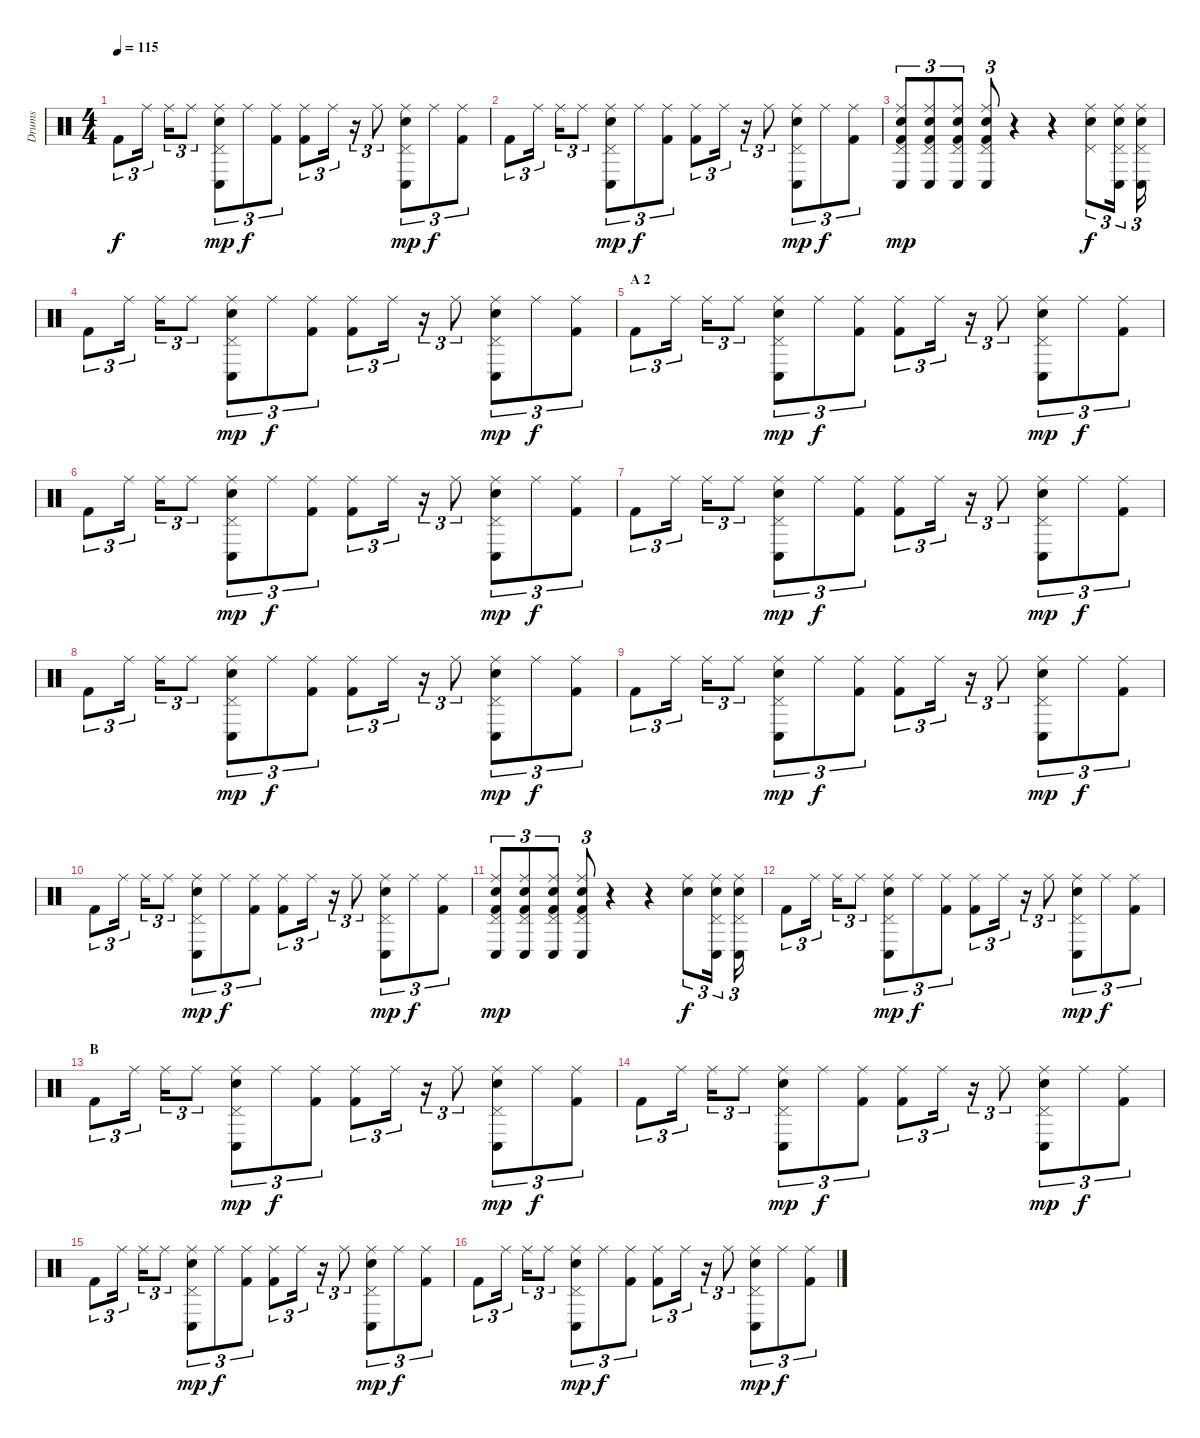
\track ("Drums" "Drums") {instrument percussion}
\staff {score}
\articulation defaults
\ts (4 4)
\tempo 115
\clef neutral
\ks c "Kick (hit) 2".8{tu (3 2) dy f} "Ride (middle)".16{tu (3 2)} "Ride (middle)".16{tu (3 2)} "Ride (middle)".8{tu (3 2)}
("Ride (middle)" "Pedal Hi-Hat (hit)" "Conga low (hit)" "Electric Snare (hit)").8{tu (3 2) dy mp} "Ride (middle)".8{tu (3 2) dy f} ("Ride (middle)" "Kick (hit) 2").8{tu (3 2)} ("Ride (middle)" "Kick (hit) 2").8{tu (3 2)} "Ride (middle)".16{tu (3 2)} r.16{tu (3 2)} "Ride (middle)".8{tu (3 2)} ("Ride (middle)" "Pedal Hi-Hat (hit)" "Conga low (hit)" "Electric Snare (hit)").8{tu (3 2) dy mp} "Ride (middle)".8{tu (3 2) dy f} ("Ride (middle)" "Kick (hit) 2").8{tu (3 2)} |
"Kick (hit) 2".8{tu (3 2)} "Ride (middle)".16{tu (3 2)} "Ride (middle)".16{tu (3 2)} "Ride (middle)".8{tu (3 2)} ("Ride (middle)" "Pedal Hi-Hat (hit)" "Conga low (hit)" "Electric Snare (hit)").8{tu (3 2) dy mp} "Ride (middle)".8{tu (3 2) dy f} ("Ride (middle)" "Kick (hit) 2").8{tu (3 2)} ("Ride (middle)" "Kick (hit) 2").8{tu (3 2)} "Ride (middle)".16{tu (3 2)} r.16{tu (3 2)} "Ride (middle)".8{tu (3 2)} ("Ride (middle)" "Pedal Hi-Hat (hit)" "Conga low (hit)" "Electric Snare (hit)").8{tu (3 2) dy mp} "Ride (middle)".8{tu (3 2) dy f} ("Ride (middle)" "Kick (hit) 2").8{tu (3 2)} |
("Ride (middle)" "Pedal Hi-Hat (hit)" "Conga low (hit)" "Electric Snare (hit)" "Kick (hit) 2").8{tu (3 2) dy mp} ("Ride (middle)" "Pedal Hi-Hat (hit)" "Conga low (hit)" "Electric Snare (hit)" "Kick (hit) 2").8{tu (3 2)} ("Ride (middle)" "Pedal Hi-Hat (hit)" "Conga low (hit)" "Electric Snare (hit)" "Kick (hit) 2").8{tu (3 2)} ("Ride (middle)" "Pedal Hi-Hat (hit)" "Conga low (hit)" "Electric Snare (hit)" "Kick (hit) 2").8{tu (3 2)} r.4 r.4 ("Ride (middle)" "Pedal Hi-Hat (hit)" "Electric Snare (hit)").8{tu (3 2) dy f} ("Ride (middle)" "Pedal Hi-Hat (hit)" "Conga low (hit)" "Electric Snare (hit)").16{tu (3 2)} ("Ride (middle)" "Pedal Hi-Hat (hit)" "Conga low (hit)" "Electric Snare (hit)").16{tu (3 2)} |
"Kick (hit) 2".8{tu (3 2)} "Ride (middle)".16{tu (3 2)} "Ride (middle)".16{tu (3 2)} "Ride (middle)".8{tu (3 2)} ("Ride (middle)" "Pedal Hi-Hat (hit)" "Conga low (hit)" "Electric Snare (hit)").8{tu (3 2) dy mp} "Ride (middle)".8{tu (3 2) dy f} ("Ride (middle)" "Kick (hit) 2").8{tu (3 2)} ("Ride (middle)" "Kick (hit) 2").8{tu (3 2)} "Ride (middle)".16{tu (3 2)} r.16{tu (3 2)} "Ride (middle)".8{tu (3 2)} ("Ride (middle)" "Pedal Hi-Hat (hit)" "Conga low (hit)" "Electric Snare (hit)").8{tu (3 2) dy mp} "Ride (middle)".8{tu (3 2) dy f} ("Ride (middle)" "Kick (hit) 2").8{tu (3 2)} |
\section ("" "A 2")
"Kick (hit) 2".8{tu (3 2)} "Ride (middle)".16{tu (3 2)} "Ride (middle)".16{tu (3 2)} "Ride (middle)".8{tu (3 2)} ("Ride (middle)" "Pedal Hi-Hat (hit)" "Conga low (hit)" "Electric Snare (hit)").8{tu (3 2) dy mp} "Ride (middle)".8{tu (3 2) dy f} ("Ride (middle)" "Kick (hit) 2").8{tu (3 2)} ("Ride (middle)" "Kick (hit) 2").8{tu (3 2)} "Ride (middle)".16{tu (3 2)} r.16{tu (3 2)} "Ride (middle)".8{tu (3 2)} ("Ride (middle)" "Pedal Hi-Hat (hit)" "Conga low (hit)" "Electric Snare (hit)").8{tu (3 2) dy mp} "Ride (middle)".8{tu (3 2) dy f} ("Ride (middle)" "Kick (hit) 2").8{tu (3 2)} |
"Kick (hit) 2".8{tu (3 2)} "Ride (middle)".16{tu (3 2)} "Ride (middle)".16{tu (3 2)} "Ride (middle)".8{tu (3 2)} ("Ride (middle)" "Pedal Hi-Hat (hit)" "Conga low (hit)" "Electric Snare (hit)").8{tu (3 2) dy mp} "Ride (middle)".8{tu (3 2) dy f} ("Ride (middle)" "Kick (hit) 2").8{tu (3 2)} ("Ride (middle)" "Kick (hit) 2").8{tu (3 2)} "Ride (middle)".16{tu (3 2)} r.16{tu (3 2)} "Ride (middle)".8{tu (3 2)} ("Ride (middle)" "Pedal Hi-Hat (hit)" "Conga low (hit)" "Electric Snare (hit)").8{tu (3 2) dy mp} "Ride (middle)".8{tu (3 2) dy f} ("Ride (middle)" "Kick (hit) 2").8{tu (3 2)} |
"Kick (hit) 2".8{tu (3 2)} "Ride (middle)".16{tu (3 2)} "Ride (middle)".16{tu (3 2)} "Ride (middle)".8{tu (3 2)} ("Ride (middle)" "Pedal Hi-Hat (hit)" "Conga low (hit)" "Electric Snare (hit)").8{tu (3 2) dy mp} "Ride (middle)".8{tu (3 2) dy f} ("Ride (middle)" "Kick (hit) 2").8{tu (3 2)} ("Ride (middle)" "Kick (hit) 2").8{tu (3 2)} "Ride (middle)".16{tu (3 2)} r.16{tu (3 2)} "Ride (middle)".8{tu (3 2)} ("Ride (middle)" "Pedal Hi-Hat (hit)" "Conga low (hit)" "Electric Snare (hit)").8{tu (3 2) dy mp} "Ride (middle)".8{tu (3 2) dy f} ("Ride (middle)" "Kick (hit) 2").8{tu (3 2)} |
"Kick (hit) 2".8{tu (3 2)} "Ride (middle)".16{tu (3 2)} "Ride (middle)".16{tu (3 2)} "Ride (middle)".8{tu (3 2)} ("Ride (middle)" "Pedal Hi-Hat (hit)" "Conga low (hit)" "Electric Snare (hit)").8{tu (3 2) dy mp} "Ride (middle)".8{tu (3 2) dy f} ("Ride (middle)" "Kick (hit) 2").8{tu (3 2)} ("Ride (middle)" "Kick (hit) 2").8{tu (3 2)} "Ride (middle)".16{tu (3 2)} r.16{tu (3 2)} "Ride (middle)".8{tu (3 2)} ("Ride (middle)" "Pedal Hi-Hat (hit)" "Conga low (hit)" "Electric Snare (hit)").8{tu (3 2) dy mp} "Ride (middle)".8{tu (3 2) dy f} ("Ride (middle)" "Kick (hit) 2").8{tu (3 2)} |
"Kick (hit) 2".8{tu (3 2)} "Ride (middle)".16{tu (3 2)} "Ride (middle)".16{tu (3 2)} "Ride (middle)".8{tu (3 2)} ("Ride (middle)" "Pedal Hi-Hat (hit)" "Conga low (hit)" "Electric Snare (hit)").8{tu (3 2) dy mp} "Ride (middle)".8{tu (3 2) dy f} ("Ride (middle)" "Kick (hit) 2").8{tu (3 2)} ("Ride (middle)" "Kick (hit) 2").8{tu (3 2)} "Ride (middle)".16{tu (3 2)} r.16{tu (3 2)} "Ride (middle)".8{tu (3 2)} ("Ride (middle)" "Pedal Hi-Hat (hit)" "Conga low (hit)" "Electric Snare (hit)").8{tu (3 2) dy mp} "Ride (middle)".8{tu (3 2) dy f} ("Ride (middle)" "Kick (hit) 2").8{tu (3 2)} |
"Kick (hit) 2".8{tu (3 2)} "Ride (middle)".16{tu (3 2)} "Ride (middle)".16{tu (3 2)} "Ride (middle)".8{tu (3 2)} ("Ride (middle)" "Pedal Hi-Hat (hit)" "Conga low (hit)" "Electric Snare (hit)").8{tu (3 2) dy mp} "Ride (middle)".8{tu (3 2) dy f} ("Ride (middle)" "Kick (hit) 2").8{tu (3 2)} ("Ride (middle)" "Kick (hit) 2").8{tu (3 2)} "Ride (middle)".16{tu (3 2)} r.16{tu (3 2)} "Ride (middle)".8{tu (3 2)} ("Ride (middle)" "Pedal Hi-Hat (hit)" "Conga low (hit)" "Electric Snare (hit)").8{tu (3 2) dy mp} "Ride (middle)".8{tu (3 2) dy f} ("Ride (middle)" "Kick (hit) 2").8{tu (3 2)} |
("Ride (middle)" "Pedal Hi-Hat (hit)" "Conga low (hit)" "Electric Snare (hit)" "Kick (hit) 2").8{tu (3 2) dy mp} ("Ride (middle)" "Pedal Hi-Hat (hit)" "Conga low (hit)" "Electric Snare (hit)" "Kick (hit) 2").8{tu (3 2)} ("Ride (middle)" "Pedal Hi-Hat (hit)" "Conga low (hit)" "Electric Snare (hit)" "Kick (hit) 2").8{tu (3 2)} ("Ride (middle)" "Pedal Hi-Hat (hit)" "Conga low (hit)" "Electric Snare (hit)" "Kick (hit) 2").8{tu (3 2)} r.4 r.4 ("Ride (middle)" "Electric Snare (hit)").8{tu (3 2) dy f} ("Ride (middle)" "Pedal Hi-Hat (hit)" "Conga low (hit)" "Electric Snare (hit)").16{tu (3 2)} ("Ride (middle)" "Pedal Hi-Hat (hit)" "Conga low (hit)" "Electric Snare (hit)").16{tu (3 2)} |
"Kick (hit) 2".8{tu (3 2)} "Ride (middle)".16{tu (3 2)} "Ride (middle)".16{tu (3 2)} "Ride (middle)".8{tu (3 2)} ("Ride (middle)" "Pedal Hi-Hat (hit)" "Conga low (hit)" "Electric Snare (hit)").8{tu (3 2) dy mp} "Ride (middle)".8{tu (3 2) dy f} ("Ride (middle)" "Kick (hit) 2").8{tu (3 2)} ("Ride (middle)" "Kick (hit) 2").8{tu (3 2)} "Ride (middle)".16{tu (3 2)} r.16{tu (3 2)} "Ride (middle)".8{tu (3 2)} ("Ride (middle)" "Pedal Hi-Hat (hit)" "Conga low (hit)" "Electric Snare (hit)").8{tu (3 2) dy mp} "Ride (middle)".8{tu (3 2) dy f} ("Ride (middle)" "Kick (hit) 2").8{tu (3 2)} |
\section ("" "B")
"Kick (hit) 2".8{tu (3 2)} "Ride (middle)".16{tu (3 2)} "Ride (middle)".16{tu (3 2)} "Ride (middle)".8{tu (3 2)} ("Ride (middle)" "Pedal Hi-Hat (hit)" "Conga low (hit)" "Electric Snare (hit)").8{tu (3 2) dy mp} "Ride (middle)".8{tu (3 2) dy f} ("Ride (middle)" "Kick (hit) 2").8{tu (3 2)} ("Ride (middle)" "Kick (hit) 2").8{tu (3 2)} "Ride (middle)".16{tu (3 2)} r.16{tu (3 2)} "Ride (middle)".8{tu (3 2)} ("Ride (middle)" "Pedal Hi-Hat (hit)" "Conga low (hit)" "Electric Snare (hit)").8{tu (3 2) dy mp} "Ride (middle)".8{tu (3 2) dy f} ("Ride (middle)" "Kick (hit) 2").8{tu (3 2)} |
"Kick (hit) 2".8{tu (3 2)} "Ride (middle)".16{tu (3 2)} "Ride (middle)".16{tu (3 2)} "Ride (middle)".8{tu (3 2)} ("Ride (middle)" "Pedal Hi-Hat (hit)" "Conga low (hit)" "Electric Snare (hit)").8{tu (3 2) dy mp} "Ride (middle)".8{tu (3 2) dy f} ("Ride (middle)" "Kick (hit) 2").8{tu (3 2)} ("Ride (middle)" "Kick (hit) 2").8{tu (3 2)} "Ride (middle)".16{tu (3 2)} r.16{tu (3 2)} "Ride (middle)".8{tu (3 2)} ("Ride (middle)" "Pedal Hi-Hat (hit)" "Conga low (hit)" "Electric Snare (hit)").8{tu (3 2) dy mp} "Ride (middle)".8{tu (3 2) dy f} ("Ride (middle)" "Kick (hit) 2").8{tu (3 2)} |
"Kick (hit) 2".8{tu (3 2)} "Ride (middle)".16{tu (3 2)} "Ride (middle)".16{tu (3 2)} "Ride (middle)".8{tu (3 2)} ("Ride (middle)" "Pedal Hi-Hat (hit)" "Conga low (hit)" "Electric Snare (hit)").8{tu (3 2) dy mp} "Ride (middle)".8{tu (3 2) dy f} ("Ride (middle)" "Kick (hit) 2").8{tu (3 2)} ("Ride (middle)" "Kick (hit) 2").8{tu (3 2)} "Ride (middle)".16{tu (3 2)} r.16{tu (3 2)} "Ride (middle)".8{tu (3 2)} ("Ride (middle)" "Pedal Hi-Hat (hit)" "Conga low (hit)" "Electric Snare (hit)").8{tu (3 2) dy mp} "Ride (middle)".8{tu (3 2) dy f} ("Ride (middle)" "Kick (hit) 2").8{tu (3 2)} |
"Kick (hit) 2".8{tu (3 2)} "Ride (middle)".16{tu (3 2)} "Ride (middle)".16{tu (3 2)} "Ride (middle)".8{tu (3 2)} ("Ride (middle)" "Pedal Hi-Hat (hit)" "Conga low (hit)" "Electric Snare (hit)").8{tu (3 2) dy mp} "Ride (middle)".8{tu (3 2) dy f} ("Ride (middle)" "Kick (hit) 2").8{tu (3 2)} ("Ride (middle)" "Kick (hit) 2").8{tu (3 2)} "Ride (middle)".16{tu (3 2)} r.16{tu (3 2)} "Ride (middle)".8{tu (3 2)} ("Ride (middle)" "Pedal Hi-Hat (hit)" "Conga low (hit)" "Electric Snare (hit)").8{tu (3 2) dy mp} "Ride (middle)".8{tu (3 2) dy f} ("Ride (middle)" "Kick (hit) 2").8{tu (3 2)}
